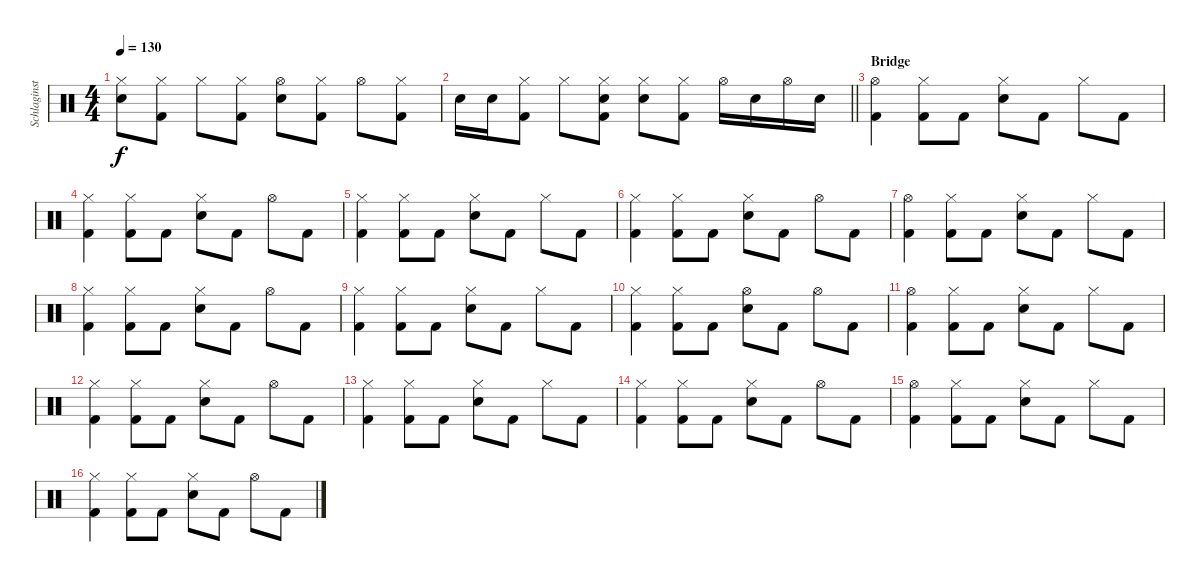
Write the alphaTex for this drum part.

\track ("Schlaginstrumente - Auswahl" "Schlaginst") {instrument percussion}
\staff {score}
\articulation defaults
\ts (4 4)
\tempo 130
\clef neutral
\ks c
("Hi-Hat (closed)" "Snare (hit) 2").8{dy f} ("Hi-Hat (closed)" "Kick (hit) 2").8 "Hi-Hat (closed)".8 ("Hi-Hat (closed)" "Kick (hit) 2").8 ("Hi-Hat (open)" "Snare (hit) 2").8 ("Hi-Hat (closed)" "Kick (hit) 2").8 "Hi-Hat (open)".8 ("Hi-Hat (closed)" "Kick (hit) 2").8 |
\barLineRight lightlight "Snare (hit) 2".16 "Snare (hit) 2".16
("Hi-Hat (closed)" "Kick (hit) 2").8 "Hi-Hat (closed)".8 ("Hi-Hat (closed)" "Snare (hit) 2" "Kick (hit) 2").8 ("Hi-Hat (closed)" "Snare (hit) 2").8 ("Hi-Hat (closed)" "Kick (hit) 2").8 "Hi-Hat (open)".16 "Snare (hit) 2".16 "Hi-Hat (open)".16 "Snare (hit) 2".16 |
\section ("" "Bridge")
("Hi-Hat (open)" "Kick (hit) 2").4 ("Hi-Hat (closed)" "Kick (hit) 2").8 "Kick (hit) 2".8 ("Hi-Hat (closed)" "Snare (hit) 2").8 "Kick (hit) 2".8 "Hi-Hat (closed)".8 "Kick (hit) 2".8 |
("Hi-Hat (closed)" "Kick (hit) 2").4 ("Hi-Hat (closed)" "Kick (hit) 2").8 "Kick (hit) 2".8 ("Hi-Hat (closed)" "Snare (hit) 2").8 "Kick (hit) 2".8 "Hi-Hat (open)".8 "Kick (hit) 2".8 |
("Hi-Hat (closed)" "Kick (hit) 2").4 ("Hi-Hat (closed)" "Kick (hit) 2").8 "Kick (hit) 2".8 ("Hi-Hat (closed)" "Snare (hit) 2").8 "Kick (hit) 2".8 "Hi-Hat (closed)".8 "Kick (hit) 2".8 |
("Hi-Hat (closed)" "Kick (hit) 2").4 ("Hi-Hat (closed)" "Kick (hit) 2").8 "Kick (hit) 2".8 ("Hi-Hat (closed)" "Snare (hit) 2").8 "Kick (hit) 2".8 "Hi-Hat (open)".8 "Kick (hit) 2".8 |
("Hi-Hat (open)" "Kick (hit) 2").4 ("Hi-Hat (closed)" "Kick (hit) 2").8 "Kick (hit) 2".8 ("Hi-Hat (closed)" "Snare (hit) 2").8 "Kick (hit) 2".8 "Hi-Hat (closed)".8 "Kick (hit) 2".8 |
("Hi-Hat (closed)" "Kick (hit) 2").4 ("Hi-Hat (closed)" "Kick (hit) 2").8 "Kick (hit) 2".8 ("Hi-Hat (closed)" "Snare (hit) 2").8 "Kick (hit) 2".8 "Hi-Hat (open)".8 "Kick (hit) 2".8 |
("Hi-Hat (closed)" "Kick (hit) 2").4 ("Hi-Hat (closed)" "Kick (hit) 2").8 "Kick (hit) 2".8 ("Hi-Hat (closed)" "Snare (hit) 2").8 "Kick (hit) 2".8 "Hi-Hat (closed)".8 "Kick (hit) 2".8 |
("Hi-Hat (closed)" "Kick (hit) 2").4 ("Hi-Hat (closed)" "Kick (hit) 2").8 "Kick (hit) 2".8 ("Hi-Hat (open)" "Snare (hit) 2").8 "Kick (hit) 2".8 "Hi-Hat (open)".8 "Kick (hit) 2".8 |
("Hi-Hat (open)" "Kick (hit) 2").4 ("Hi-Hat (closed)" "Kick (hit) 2").8 "Kick (hit) 2".8 ("Hi-Hat (closed)" "Snare (hit) 2").8 "Kick (hit) 2".8 "Hi-Hat (closed)".8 "Kick (hit) 2".8 |
("Hi-Hat (closed)" "Kick (hit) 2").4 ("Hi-Hat (closed)" "Kick (hit) 2").8 "Kick (hit) 2".8 ("Hi-Hat (closed)" "Snare (hit) 2").8 "Kick (hit) 2".8 "Hi-Hat (open)".8 "Kick (hit) 2".8 |
("Hi-Hat (closed)" "Kick (hit) 2").4 ("Hi-Hat (closed)" "Kick (hit) 2").8 "Kick (hit) 2".8 ("Hi-Hat (closed)" "Snare (hit) 2").8 "Kick (hit) 2".8 "Hi-Hat (closed)".8 "Kick (hit) 2".8 |
("Hi-Hat (closed)" "Kick (hit) 2").4 ("Hi-Hat (closed)" "Kick (hit) 2").8 "Kick (hit) 2".8 ("Hi-Hat (closed)" "Snare (hit) 2").8 "Kick (hit) 2".8 "Hi-Hat (open)".8 "Kick (hit) 2".8 |
("Hi-Hat (open)" "Kick (hit) 2").4 ("Hi-Hat (closed)" "Kick (hit) 2").8 "Kick (hit) 2".8 ("Hi-Hat (closed)" "Snare (hit) 2").8 "Kick (hit) 2".8 "Hi-Hat (closed)".8 "Kick (hit) 2".8 |
("Hi-Hat (closed)" "Kick (hit) 2").4 ("Hi-Hat (closed)" "Kick (hit) 2").8 "Kick (hit) 2".8 ("Hi-Hat (closed)" "Snare (hit) 2").8 "Kick (hit) 2".8 "Hi-Hat (open)".8 "Kick (hit) 2".8
